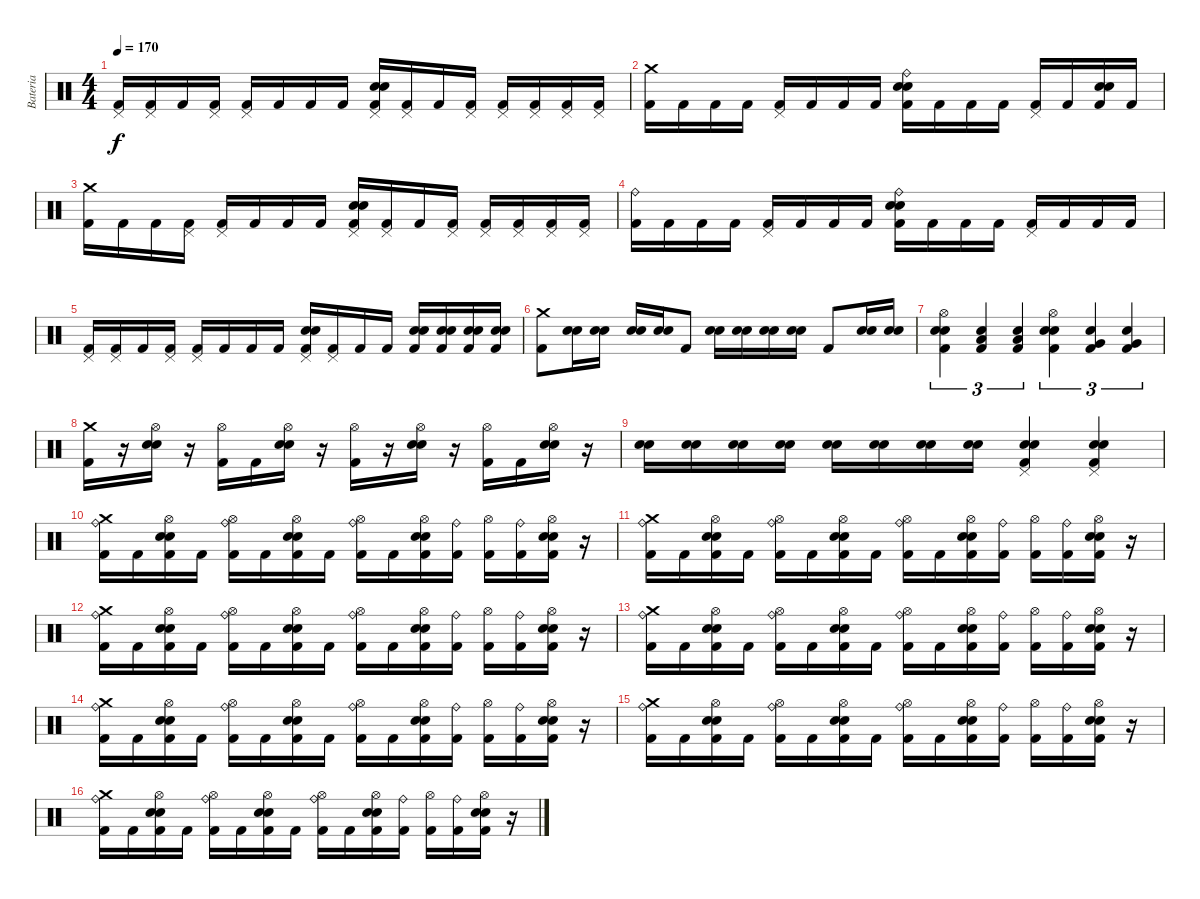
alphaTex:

\track ("Bateria" "Bateria") {instrument percussion}
\staff {score}
\articulation defaults
\ts (4 4)
\tempo 170
\clef neutral
\ks c
("Pedal Hi-Hat (hit)" "Kick (hit) 2").16{dy f} ("Pedal Hi-Hat (hit)" "Kick (hit) 2").16 "Kick (hit) 2".16 ("Pedal Hi-Hat (hit)" "Kick (hit) 2").16 ("Pedal Hi-Hat (hit)" "Kick (hit) 2").16 "Kick (hit) 2".16 "Kick (hit) 2".16 "Kick (hit) 2".16 ("Pedal Hi-Hat (hit)" "Electric Snare (hit)" "Snare (hit) 2" "Kick (hit) 2").16 ("Pedal Hi-Hat (hit)" "Kick (hit) 2").16 "Kick (hit) 2".16 ("Pedal Hi-Hat (hit)" "Kick (hit) 2").16 ("Pedal Hi-Hat (hit)" "Kick (hit) 2").16 ("Pedal Hi-Hat (hit)" "Kick (hit) 2").16 ("Pedal Hi-Hat (hit)" "Kick (hit) 2").16 ("Pedal Hi-Hat (hit)" "Kick (hit) 2").16 |
("Crash medium (hit)" "Kick (hit) 2").16 "Kick (hit) 2".16 "Kick (hit) 2".16 "Kick (hit) 2".16 ("Pedal Hi-Hat (hit)" "Kick (hit) 2").16 "Kick (hit) 2".16 "Kick (hit) 2".16 "Kick (hit) 2".16 ("Ride (bell)" "Electric Snare (hit)" "Snare (hit) 2" "Kick (hit) 2").16 "Kick (hit) 2".16 "Kick (hit) 2".16 "Kick (hit) 2".16 ("Pedal Hi-Hat (hit)" "Kick (hit) 2").16 "Kick (hit) 2".16 ("Electric Snare (hit)" "Snare (hit) 2" "Kick (hit) 2").16 "Kick (hit) 2".16 |
("Crash medium (hit)" "Kick (hit) 2").16 "Kick (hit) 2".16 "Kick (hit) 2".16 ("Pedal Hi-Hat (hit)" "Kick (hit) 2").16 ("Pedal Hi-Hat (hit)" "Kick (hit) 2").16 "Kick (hit) 2".16 "Kick (hit) 2".16 "Kick (hit) 2".16 ("Pedal Hi-Hat (hit)" "Electric Snare (hit)" "Snare (hit) 2" "Kick (hit) 2").16 ("Pedal Hi-Hat (hit)" "Kick (hit) 2").16 "Kick (hit) 2".16 ("Pedal Hi-Hat (hit)" "Kick (hit) 2").16 ("Pedal Hi-Hat (hit)" "Kick (hit) 2").16 ("Pedal Hi-Hat (hit)" "Kick (hit) 2").16 ("Pedal Hi-Hat (hit)" "Kick (hit) 2").16 ("Pedal Hi-Hat (hit)" "Kick (hit) 2").16 |
("Ride (bell)" "Kick (hit) 2").16 "Kick (hit) 2".16 "Kick (hit) 2".16 "Kick (hit) 2".16 ("Pedal Hi-Hat (hit)" "Kick (hit) 2").16 "Kick (hit) 2".16 "Kick (hit) 2".16 "Kick (hit) 2".16 ("Ride (bell)" "Electric Snare (hit)" "Snare (hit) 2" "Kick (hit) 2").16 "Kick (hit) 2".16 "Kick (hit) 2".16 "Kick (hit) 2".16 ("Pedal Hi-Hat (hit)" "Kick (hit) 2").16 "Kick (hit) 2".16 "Kick (hit) 2".16 "Kick (hit) 2".16 |
("Pedal Hi-Hat (hit)" "Kick (hit) 2").16 ("Pedal Hi-Hat (hit)" "Kick (hit) 2").16 "Kick (hit) 2".16 ("Pedal Hi-Hat (hit)" "Kick (hit) 2").16 ("Pedal Hi-Hat (hit)" "Kick (hit) 2").16 "Kick (hit) 2".16 "Kick (hit) 2".16 "Kick (hit) 2".16 ("Pedal Hi-Hat (hit)" "Electric Snare (hit)" "Snare (hit) 2" "Kick (hit) 2").16 ("Pedal Hi-Hat (hit)" "Kick (hit) 2").16 "Kick (hit) 2".16 "Kick (hit) 2".16 ("Electric Snare (hit)" "Snare (hit) 2" "Kick (hit) 2").16 ("Electric Snare (hit)" "Snare (hit) 2" "Kick (hit) 2").16 ("Electric Snare (hit)" "Snare (hit) 2" "Kick (hit) 2").16 ("Electric Snare (hit)" "Snare (hit) 2" "Kick (hit) 2").16 |
("Crash medium (hit)" "Kick (hit) 2").8 ("Electric Snare (hit)" "Snare (hit) 2").16 ("Electric Snare (hit)" "Snare (hit) 2").16 ("Electric Snare (hit)" "Snare (hit) 2").16 ("Electric Snare (hit)" "Snare (hit) 2").16 "Kick (hit) 2".8 ("Electric Snare (hit)" "Snare (hit) 2").16 ("Electric Snare (hit)" "Snare (hit) 2").16 ("Electric Snare (hit)" "Snare (hit) 2").16 ("Electric Snare (hit)" "Snare (hit) 2").16 "Kick (hit) 2".8 ("Electric Snare (hit)" "Snare (hit) 2").16 ("Electric Snare (hit)" "Snare (hit) 2").16 |
("Hi-Hat (open)" "Electric Snare (hit)" "Snare (hit) 2" "Kick (hit) 2").4{tu (3 2)} ("Low Tom (hit)" "Snare (hit) 2" "Kick (hit) 2").4{tu (3 2)} ("Low Tom (hit)" "Snare (hit) 2" "Kick (hit) 2").4{tu (3 2)} ("Hi-Hat (open)" "Electric Snare (hit)" "Snare (hit) 2" "Kick (hit) 2").4{tu (3 2)} ("Very Low Tom (hit)" "Snare (hit) 2" "Kick (hit) 2").4{tu (3 2)} ("Very Low Tom (hit)" "Snare (hit) 2" "Kick (hit) 2").4{tu (3 2)} |
("Crash medium (hit)" "Kick (hit) 2").16 r.16 ("Hi-Hat (open)" "Electric Snare (hit)" "Snare (hit) 2").16 r.16 ("Hi-Hat (open)" "Kick (hit) 2").16 "Kick (hit) 2".16 ("Hi-Hat (open)" "Electric Snare (hit)" "Snare (hit) 2").16 r.16 ("Hi-Hat (open)" "Kick (hit) 2").16 r.16 ("Hi-Hat (open)" "Electric Snare (hit)" "Snare (hit) 2").16 r.16 ("Hi-Hat (open)" "Kick (hit) 2").16 "Kick (hit) 2".16 ("Hi-Hat (open)" "Electric Snare (hit)" "Snare (hit) 2").16 r.16 |
("Electric Snare (hit)" "Snare (hit) 2").16 ("Electric Snare (hit)" "Snare (hit) 2").16 ("Electric Snare (hit)" "Snare (hit) 2").16 ("Electric Snare (hit)" "Snare (hit) 2").16 ("Electric Snare (hit)" "Snare (hit) 2").16 ("Electric Snare (hit)" "Snare (hit) 2").16 ("Electric Snare (hit)" "Snare (hit) 2").16 ("Electric Snare (hit)" "Snare (hit) 2").16 ("Pedal Hi-Hat (hit)" "Electric Snare (hit)" "Snare (hit) 2" "Kick (hit) 2").4 ("Pedal Hi-Hat (hit)" "Electric Snare (hit)" "Snare (hit) 2" "Kick (hit) 2").4 |
("Ride (bell)" "Crash medium (hit)" "Kick (hit) 2").16 "Kick (hit) 2".16 ("Hi-Hat (open)" "Electric Snare (hit)" "Snare (hit) 2" "Kick (hit) 2").16 "Kick (hit) 2".16 ("Ride (bell)" "Hi-Hat (open)" "Kick (hit) 2").16 "Kick (hit) 2".16 ("Hi-Hat (open)" "Electric Snare (hit)" "Snare (hit) 2" "Kick (hit) 2").16 "Kick (hit) 2".16 ("Ride (bell)" "Hi-Hat (open)" "Kick (hit) 2").16 "Kick (hit) 2".16 ("Hi-Hat (open)" "Electric Snare (hit)" "Snare (hit) 2" "Kick (hit) 2").16 ("Ride (bell)" "Kick (hit) 2").16 ("Hi-Hat (open)" "Kick (hit) 2").16 ("Ride (bell)" "Kick (hit) 2").16 ("Hi-Hat (open)" "Electric Snare (hit)" "Snare (hit) 2" "Kick (hit) 2").16 r.16 |
("Ride (bell)" "Crash medium (hit)" "Kick (hit) 2").16 "Kick (hit) 2".16 ("Hi-Hat (open)" "Electric Snare (hit)" "Snare (hit) 2" "Kick (hit) 2").16 "Kick (hit) 2".16 ("Ride (bell)" "Hi-Hat (open)" "Kick (hit) 2").16 "Kick (hit) 2".16 ("Hi-Hat (open)" "Electric Snare (hit)" "Snare (hit) 2" "Kick (hit) 2").16 "Kick (hit) 2".16 ("Ride (bell)" "Hi-Hat (open)" "Kick (hit) 2").16 "Kick (hit) 2".16 ("Hi-Hat (open)" "Electric Snare (hit)" "Snare (hit) 2" "Kick (hit) 2").16 ("Ride (bell)" "Kick (hit) 2").16 ("Hi-Hat (open)" "Kick (hit) 2").16 ("Ride (bell)" "Kick (hit) 2").16 ("Hi-Hat (open)" "Electric Snare (hit)" "Snare (hit) 2" "Kick (hit) 2").16 r.16 |
("Ride (bell)" "Crash medium (hit)" "Kick (hit) 2").16 "Kick (hit) 2".16 ("Hi-Hat (open)" "Electric Snare (hit)" "Snare (hit) 2" "Kick (hit) 2").16 "Kick (hit) 2".16 ("Ride (bell)" "Hi-Hat (open)" "Kick (hit) 2").16 "Kick (hit) 2".16 ("Hi-Hat (open)" "Electric Snare (hit)" "Snare (hit) 2" "Kick (hit) 2").16 "Kick (hit) 2".16 ("Ride (bell)" "Hi-Hat (open)" "Kick (hit) 2").16 "Kick (hit) 2".16 ("Hi-Hat (open)" "Electric Snare (hit)" "Snare (hit) 2" "Kick (hit) 2").16 ("Ride (bell)" "Kick (hit) 2").16 ("Hi-Hat (open)" "Kick (hit) 2").16 ("Ride (bell)" "Kick (hit) 2").16 ("Hi-Hat (open)" "Electric Snare (hit)" "Snare (hit) 2" "Kick (hit) 2").16 r.16 |
("Ride (bell)" "Crash medium (hit)" "Kick (hit) 2").16 "Kick (hit) 2".16 ("Hi-Hat (open)" "Electric Snare (hit)" "Snare (hit) 2" "Kick (hit) 2").16 "Kick (hit) 2".16 ("Ride (bell)" "Hi-Hat (open)" "Kick (hit) 2").16 "Kick (hit) 2".16 ("Hi-Hat (open)" "Electric Snare (hit)" "Snare (hit) 2" "Kick (hit) 2").16 "Kick (hit) 2".16 ("Ride (bell)" "Hi-Hat (open)" "Kick (hit) 2").16 "Kick (hit) 2".16 ("Hi-Hat (open)" "Electric Snare (hit)" "Snare (hit) 2" "Kick (hit) 2").16 ("Ride (bell)" "Kick (hit) 2").16 ("Hi-Hat (open)" "Kick (hit) 2").16 ("Ride (bell)" "Kick (hit) 2").16 ("Hi-Hat (open)" "Electric Snare (hit)" "Snare (hit) 2" "Kick (hit) 2").16 r.16 |
("Ride (bell)" "Crash medium (hit)" "Kick (hit) 2").16 "Kick (hit) 2".16 ("Hi-Hat (open)" "Electric Snare (hit)" "Snare (hit) 2" "Kick (hit) 2").16 "Kick (hit) 2".16 ("Ride (bell)" "Hi-Hat (open)" "Kick (hit) 2").16 "Kick (hit) 2".16 ("Hi-Hat (open)" "Electric Snare (hit)" "Snare (hit) 2" "Kick (hit) 2").16 "Kick (hit) 2".16 ("Ride (bell)" "Hi-Hat (open)" "Kick (hit) 2").16 "Kick (hit) 2".16 ("Hi-Hat (open)" "Electric Snare (hit)" "Snare (hit) 2" "Kick (hit) 2").16 ("Ride (bell)" "Kick (hit) 2").16 ("Hi-Hat (open)" "Kick (hit) 2").16 ("Ride (bell)" "Kick (hit) 2").16 ("Hi-Hat (open)" "Electric Snare (hit)" "Snare (hit) 2" "Kick (hit) 2").16 r.16 |
("Ride (bell)" "Crash medium (hit)" "Kick (hit) 2").16 "Kick (hit) 2".16 ("Hi-Hat (open)" "Electric Snare (hit)" "Snare (hit) 2" "Kick (hit) 2").16 "Kick (hit) 2".16 ("Ride (bell)" "Hi-Hat (open)" "Kick (hit) 2").16 "Kick (hit) 2".16 ("Hi-Hat (open)" "Electric Snare (hit)" "Snare (hit) 2" "Kick (hit) 2").16 "Kick (hit) 2".16 ("Ride (bell)" "Hi-Hat (open)" "Kick (hit) 2").16 "Kick (hit) 2".16 ("Hi-Hat (open)" "Electric Snare (hit)" "Snare (hit) 2" "Kick (hit) 2").16 ("Ride (bell)" "Kick (hit) 2").16 ("Hi-Hat (open)" "Kick (hit) 2").16 ("Ride (bell)" "Kick (hit) 2").16 ("Hi-Hat (open)" "Electric Snare (hit)" "Snare (hit) 2" "Kick (hit) 2").16 r.16 |
("Ride (bell)" "Crash medium (hit)" "Kick (hit) 2").16 "Kick (hit) 2".16 ("Hi-Hat (open)" "Electric Snare (hit)" "Snare (hit) 2" "Kick (hit) 2").16 "Kick (hit) 2".16 ("Ride (bell)" "Hi-Hat (open)" "Kick (hit) 2").16 "Kick (hit) 2".16 ("Hi-Hat (open)" "Electric Snare (hit)" "Snare (hit) 2" "Kick (hit) 2").16 "Kick (hit) 2".16 ("Ride (bell)" "Hi-Hat (open)" "Kick (hit) 2").16 "Kick (hit) 2".16 ("Hi-Hat (open)" "Electric Snare (hit)" "Snare (hit) 2" "Kick (hit) 2").16 ("Ride (bell)" "Kick (hit) 2").16 ("Hi-Hat (open)" "Kick (hit) 2").16 ("Ride (bell)" "Kick (hit) 2").16 ("Hi-Hat (open)" "Electric Snare (hit)" "Snare (hit) 2" "Kick (hit) 2").16 r.16
